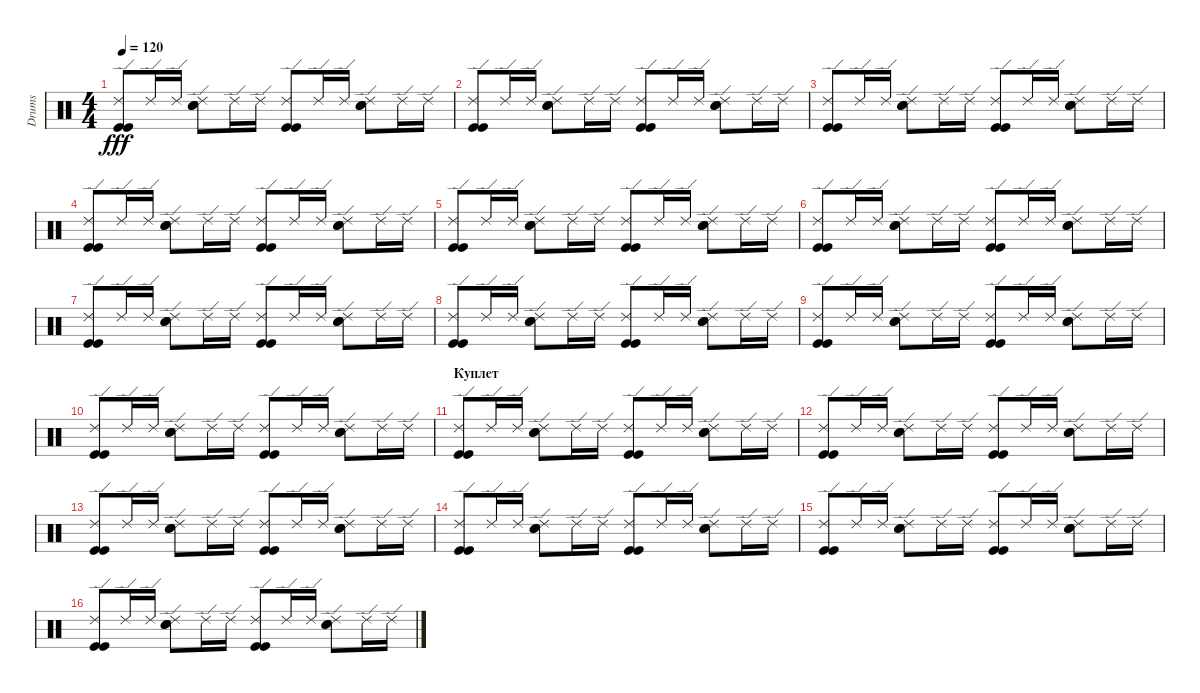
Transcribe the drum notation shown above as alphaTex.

\track ("Drums" "Drums") {instrument percussion}
\staff {score}
\articulation defaults
\ts (4 4)
\tempo 120
\clef neutral
\ks c
("Ride (edge) 2" "Kick (hit)" "Kick (hit)").8{dy fff} "Ride (edge) 2".16 "Ride (edge) 2".16 ("Ride (edge) 2" "Electric Snare (hit)" "Electric Snare (hit)").8 "Ride (edge) 2".16 "Ride (edge) 2".16 ("Ride (edge) 2" "Kick (hit)" "Kick (hit)").8 "Ride (edge) 2".16 "Ride (edge) 2".16 ("Ride (edge) 2" "Electric Snare (hit)" "Electric Snare (hit)").8 "Ride (edge) 2".16 "Ride (edge) 2".16 |
("Ride (edge) 2" "Kick (hit)" "Kick (hit)").8 "Ride (edge) 2".16 "Ride (edge) 2".16 ("Ride (edge) 2" "Electric Snare (hit)" "Electric Snare (hit)").8 "Ride (edge) 2".16 "Ride (edge) 2".16 ("Ride (edge) 2" "Kick (hit)" "Kick (hit)").8 "Ride (edge) 2".16 "Ride (edge) 2".16 ("Ride (edge) 2" "Electric Snare (hit)" "Electric Snare (hit)").8 "Ride (edge) 2".16 "Ride (edge) 2".16 |
("Ride (edge) 2" "Kick (hit)" "Kick (hit)").8 "Ride (edge) 2".16 "Ride (edge) 2".16 ("Ride (edge) 2" "Electric Snare (hit)" "Electric Snare (hit)").8 "Ride (edge) 2".16 "Ride (edge) 2".16 ("Ride (edge) 2" "Kick (hit)" "Kick (hit)").8 "Ride (edge) 2".16 "Ride (edge) 2".16 ("Ride (edge) 2" "Electric Snare (hit)" "Electric Snare (hit)").8 "Ride (edge) 2".16 "Ride (edge) 2".16 |
("Ride (edge) 2" "Kick (hit)" "Kick (hit)").8 "Ride (edge) 2".16 "Ride (edge) 2".16 ("Ride (edge) 2" "Electric Snare (hit)" "Electric Snare (hit)").8 "Ride (edge) 2".16 "Ride (edge) 2".16 ("Ride (edge) 2" "Kick (hit)" "Kick (hit)").8 "Ride (edge) 2".16 "Ride (edge) 2".16 ("Ride (edge) 2" "Electric Snare (hit)" "Electric Snare (hit)").8 "Ride (edge) 2".16 "Ride (edge) 2".16 |
("Ride (edge) 2" "Kick (hit)" "Kick (hit)").8 "Ride (edge) 2".16 "Ride (edge) 2".16 ("Ride (edge) 2" "Electric Snare (hit)" "Electric Snare (hit)").8 "Ride (edge) 2".16 "Ride (edge) 2".16 ("Ride (edge) 2" "Kick (hit)" "Kick (hit)").8 "Ride (edge) 2".16 "Ride (edge) 2".16 ("Ride (edge) 2" "Electric Snare (hit)" "Electric Snare (hit)").8 "Ride (edge) 2".16 "Ride (edge) 2".16 |
("Ride (edge) 2" "Kick (hit)" "Kick (hit)").8 "Ride (edge) 2".16 "Ride (edge) 2".16 ("Ride (edge) 2" "Electric Snare (hit)" "Electric Snare (hit)").8 "Ride (edge) 2".16 "Ride (edge) 2".16 ("Ride (edge) 2" "Kick (hit)" "Kick (hit)").8 "Ride (edge) 2".16 "Ride (edge) 2".16 ("Ride (edge) 2" "Electric Snare (hit)" "Electric Snare (hit)").8 "Ride (edge) 2".16 "Ride (edge) 2".16 |
("Ride (edge) 2" "Kick (hit)" "Kick (hit)").8 "Ride (edge) 2".16 "Ride (edge) 2".16 ("Ride (edge) 2" "Electric Snare (hit)" "Electric Snare (hit)").8 "Ride (edge) 2".16 "Ride (edge) 2".16 ("Ride (edge) 2" "Kick (hit)" "Kick (hit)").8 "Ride (edge) 2".16 "Ride (edge) 2".16 ("Ride (edge) 2" "Electric Snare (hit)" "Electric Snare (hit)").8 "Ride (edge) 2".16 "Ride (edge) 2".16 |
("Ride (edge) 2" "Kick (hit)" "Kick (hit)").8 "Ride (edge) 2".16 "Ride (edge) 2".16 ("Ride (edge) 2" "Electric Snare (hit)" "Electric Snare (hit)").8 "Ride (edge) 2".16 "Ride (edge) 2".16 ("Ride (edge) 2" "Kick (hit)" "Kick (hit)").8 "Ride (edge) 2".16 "Ride (edge) 2".16 ("Ride (edge) 2" "Electric Snare (hit)" "Electric Snare (hit)").8 "Ride (edge) 2".16 "Ride (edge) 2".16 |
("Ride (edge) 2" "Kick (hit)" "Kick (hit)").8 "Ride (edge) 2".16 "Ride (edge) 2".16 ("Ride (edge) 2" "Electric Snare (hit)" "Electric Snare (hit)").8 "Ride (edge) 2".16 "Ride (edge) 2".16 ("Ride (edge) 2" "Kick (hit)" "Kick (hit)").8 "Ride (edge) 2".16 "Ride (edge) 2".16 ("Ride (edge) 2" "Electric Snare (hit)" "Electric Snare (hit)").8 "Ride (edge) 2".16 "Ride (edge) 2".16 |
("Ride (edge) 2" "Kick (hit)" "Kick (hit)").8 "Ride (edge) 2".16 "Ride (edge) 2".16 ("Ride (edge) 2" "Electric Snare (hit)" "Electric Snare (hit)").8 "Ride (edge) 2".16 "Ride (edge) 2".16 ("Ride (edge) 2" "Kick (hit)" "Kick (hit)").8 "Ride (edge) 2".16 "Ride (edge) 2".16 ("Ride (edge) 2" "Electric Snare (hit)" "Electric Snare (hit)").8 "Ride (edge) 2".16 "Ride (edge) 2".16 |
\section ("" "Куплет")
("Ride (edge) 2" "Kick (hit)" "Kick (hit)").8 "Ride (edge) 2".16 "Ride (edge) 2".16 ("Ride (edge) 2" "Electric Snare (hit)" "Electric Snare (hit)").8 "Ride (edge) 2".16 "Ride (edge) 2".16 ("Ride (edge) 2" "Kick (hit)" "Kick (hit)").8 "Ride (edge) 2".16 "Ride (edge) 2".16 ("Ride (edge) 2" "Electric Snare (hit)" "Electric Snare (hit)").8 "Ride (edge) 2".16 "Ride (edge) 2".16 |
("Ride (edge) 2" "Kick (hit)" "Kick (hit)").8 "Ride (edge) 2".16 "Ride (edge) 2".16 ("Ride (edge) 2" "Electric Snare (hit)" "Electric Snare (hit)").8 "Ride (edge) 2".16 "Ride (edge) 2".16 ("Ride (edge) 2" "Kick (hit)" "Kick (hit)").8 "Ride (edge) 2".16 "Ride (edge) 2".16 ("Ride (edge) 2" "Electric Snare (hit)" "Electric Snare (hit)").8 "Ride (edge) 2".16 "Ride (edge) 2".16 |
("Ride (edge) 2" "Kick (hit)" "Kick (hit)").8 "Ride (edge) 2".16 "Ride (edge) 2".16 ("Ride (edge) 2" "Electric Snare (hit)" "Electric Snare (hit)").8 "Ride (edge) 2".16 "Ride (edge) 2".16 ("Ride (edge) 2" "Kick (hit)" "Kick (hit)").8 "Ride (edge) 2".16 "Ride (edge) 2".16 ("Ride (edge) 2" "Electric Snare (hit)" "Electric Snare (hit)").8 "Ride (edge) 2".16 "Ride (edge) 2".16 |
("Ride (edge) 2" "Kick (hit)" "Kick (hit)").8 "Ride (edge) 2".16 "Ride (edge) 2".16 ("Ride (edge) 2" "Electric Snare (hit)" "Electric Snare (hit)").8 "Ride (edge) 2".16 "Ride (edge) 2".16 ("Ride (edge) 2" "Kick (hit)" "Kick (hit)").8 "Ride (edge) 2".16 "Ride (edge) 2".16 ("Ride (edge) 2" "Electric Snare (hit)" "Electric Snare (hit)").8 "Ride (edge) 2".16 "Ride (edge) 2".16 |
("Ride (edge) 2" "Kick (hit)" "Kick (hit)").8 "Ride (edge) 2".16 "Ride (edge) 2".16 ("Ride (edge) 2" "Electric Snare (hit)" "Electric Snare (hit)").8 "Ride (edge) 2".16 "Ride (edge) 2".16 ("Ride (edge) 2" "Kick (hit)" "Kick (hit)").8 "Ride (edge) 2".16 "Ride (edge) 2".16 ("Ride (edge) 2" "Electric Snare (hit)" "Electric Snare (hit)").8 "Ride (edge) 2".16 "Ride (edge) 2".16 |
("Ride (edge) 2" "Kick (hit)" "Kick (hit)").8 "Ride (edge) 2".16 "Ride (edge) 2".16 ("Ride (edge) 2" "Electric Snare (hit)" "Electric Snare (hit)").8 "Ride (edge) 2".16 "Ride (edge) 2".16 ("Ride (edge) 2" "Kick (hit)" "Kick (hit)").8 "Ride (edge) 2".16 "Ride (edge) 2".16 ("Ride (edge) 2" "Electric Snare (hit)" "Electric Snare (hit)").8 "Ride (edge) 2".16 "Ride (edge) 2".16
